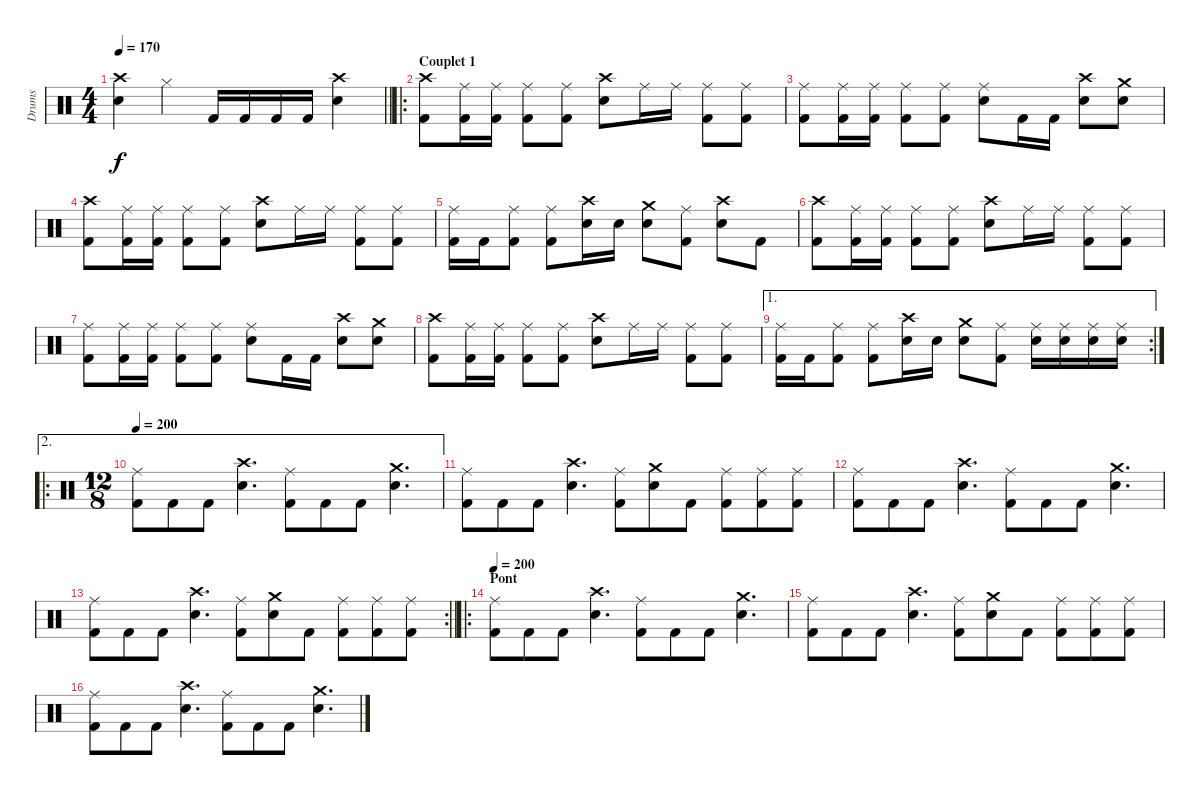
\track ("Drums" "Drums") {instrument percussion}
\staff {score}
\articulation defaults
\ts (4 4)
\tempo 170
\clef neutral
\barLineRight lightlight
\ks c
("Crash high (hit)" "Electric Snare (hit)").4{dy f} "Hi-Hat (closed)".4 "Kick (hit) 2".16 "Kick (hit) 2".16 "Kick (hit) 2".16 "Kick (hit) 2".16 ("Crash high (hit)" "Electric Snare (hit)").4 |
\ro
\section ("" "Couplet 1")
("Crash high (hit)" "Kick (hit) 2").8 ("Ride (middle)" "Kick (hit) 2").16 ("Ride (middle)" "Kick (hit) 2").16 ("Ride (middle)" "Kick (hit) 2").8 ("Ride (middle)" "Kick (hit) 2").8 ("Crash high (hit)" "Electric Snare (hit)").8 "Ride (middle)".16 "Ride (middle)".16 ("Ride (middle)" "Kick (hit) 2").8 ("Ride (middle)" "Kick (hit) 2").8 |
("Ride (middle)" "Kick (hit) 2").8 ("Ride (middle)" "Kick (hit) 2").16 ("Ride (middle)" "Kick (hit) 2").16 ("Ride (middle)" "Kick (hit) 2").8 ("Ride (middle)" "Kick (hit) 2").8 ("Ride (middle)" "Electric Snare (hit)").8 "Kick (hit) 2".16 "Kick (hit) 2".16 ("Crash high (hit)" "Electric Snare (hit)").8 ("Crash medium (hit)" "Electric Snare (hit)").8 |
("Crash high (hit)" "Kick (hit) 2").8 ("Ride (middle)" "Kick (hit) 2").16 ("Ride (middle)" "Kick (hit) 2").16 ("Ride (middle)" "Kick (hit) 2").8 ("Ride (middle)" "Kick (hit) 2").8 ("Crash high (hit)" "Electric Snare (hit)").8 "Ride (middle)".16 "Ride (middle)".16 ("Ride (middle)" "Kick (hit) 2").8 ("Ride (middle)" "Kick (hit) 2").8 |
("Ride (middle)" "Kick (hit) 2").16 "Kick (hit) 2".16 ("Ride (middle)" "Kick (hit) 2").8 ("Ride (middle)" "Kick (hit) 2").8 ("Crash high (hit)" "Electric Snare (hit)").16 "Electric Snare (hit)".16 ("Crash medium (hit)" "Electric Snare (hit)").8 ("Ride (middle)" "Kick (hit) 2").8 ("Crash high (hit)" "Electric Snare (hit)").8 "Kick (hit) 2".8 |
("Crash high (hit)" "Kick (hit) 2").8 ("Ride (middle)" "Kick (hit) 2").16 ("Ride (middle)" "Kick (hit) 2").16 ("Ride (middle)" "Kick (hit) 2").8 ("Ride (middle)" "Kick (hit) 2").8 ("Crash high (hit)" "Electric Snare (hit)").8 "Ride (middle)".16 "Ride (middle)".16 ("Ride (middle)" "Kick (hit) 2").8 ("Ride (middle)" "Kick (hit) 2").8 |
("Ride (middle)" "Kick (hit) 2").8 ("Ride (middle)" "Kick (hit) 2").16 ("Ride (middle)" "Kick (hit) 2").16 ("Ride (middle)" "Kick (hit) 2").8 ("Ride (middle)" "Kick (hit) 2").8 ("Ride (middle)" "Electric Snare (hit)").8 "Kick (hit) 2".16 "Kick (hit) 2".16 ("Crash high (hit)" "Electric Snare (hit)").8 ("Crash medium (hit)" "Electric Snare (hit)").8 |
("Crash high (hit)" "Kick (hit) 2").8 ("Ride (middle)" "Kick (hit) 2").16 ("Ride (middle)" "Kick (hit) 2").16 ("Ride (middle)" "Kick (hit) 2").8 ("Ride (middle)" "Kick (hit) 2").8 ("Crash high (hit)" "Electric Snare (hit)").8 "Ride (middle)".16 "Ride (middle)".16 ("Ride (middle)" "Kick (hit) 2").8 ("Ride (middle)" "Kick (hit) 2").8 |
\ae 1
\rc 2
("Ride (middle)" "Kick (hit) 2").16 "Kick (hit) 2".16 ("Ride (middle)" "Kick (hit) 2").8 ("Ride (middle)" "Kick (hit) 2").8 ("Crash high (hit)" "Electric Snare (hit)").16 "Electric Snare (hit)".16 ("Crash medium (hit)" "Electric Snare (hit)").8 ("Ride (middle)" "Kick (hit) 2").8 ("Ride (middle)" "Electric Snare (hit)").16 ("Ride (middle)" "Electric Snare (hit)").16 ("Ride (middle)" "Electric Snare (hit)").16 ("Ride (middle)" "Electric Snare (hit)").16 |
\ae 2
\ro
\ts (12 8)
\tempo 200
("Ride (middle)" "Kick (hit) 2").8 "Kick (hit) 2".8 "Kick (hit) 2".8 ("Crash high (hit)" "Electric Snare (hit)").4{d} ("Ride (middle)" "Kick (hit) 2").8 "Kick (hit) 2".8 "Kick (hit) 2".8 ("Crash medium (hit)" "Electric Snare (hit)").4{d} |
("Ride (middle)" "Kick (hit) 2").8 "Kick (hit) 2".8 "Kick (hit) 2".8 ("Crash high (hit)" "Electric Snare (hit)").4{d} ("Ride (middle)" "Kick (hit) 2").8 ("Crash medium (hit)" "Electric Snare (hit)").8 "Kick (hit) 2".8 ("Ride (middle)" "Kick (hit) 2").8 ("Ride (middle)" "Kick (hit) 2").8 ("Ride (middle)" "Kick (hit) 2").8 |
("Ride (middle)" "Kick (hit) 2").8 "Kick (hit) 2".8 "Kick (hit) 2".8 ("Crash high (hit)" "Electric Snare (hit)").4{d} ("Ride (middle)" "Kick (hit) 2").8 "Kick (hit) 2".8 "Kick (hit) 2".8 ("Crash medium (hit)" "Electric Snare (hit)").4{d} |
\rc 2
\barLineRight lightlight
("Ride (middle)" "Kick (hit) 2").8 "Kick (hit) 2".8 "Kick (hit) 2".8 ("Crash high (hit)" "Electric Snare (hit)").4{d} ("Ride (middle)" "Kick (hit) 2").8 ("Crash medium (hit)" "Electric Snare (hit)").8 "Kick (hit) 2".8 ("Ride (middle)" "Kick (hit) 2").8 ("Ride (middle)" "Kick (hit) 2").8 ("Ride (middle)" "Kick (hit) 2").8 |
\ro
\section ("" "Pont")
\tempo 200
("Ride (middle)" "Kick (hit) 2").8 "Kick (hit) 2".8 "Kick (hit) 2".8 ("Crash high (hit)" "Electric Snare (hit)").4{d} ("Ride (middle)" "Kick (hit) 2").8 "Kick (hit) 2".8 "Kick (hit) 2".8 ("Crash medium (hit)" "Electric Snare (hit)").4{d} |
("Ride (middle)" "Kick (hit) 2").8 "Kick (hit) 2".8 "Kick (hit) 2".8 ("Crash high (hit)" "Electric Snare (hit)").4{d} ("Ride (middle)" "Kick (hit) 2").8 ("Crash medium (hit)" "Electric Snare (hit)").8 "Kick (hit) 2".8 ("Ride (middle)" "Kick (hit) 2").8 ("Ride (middle)" "Kick (hit) 2").8 ("Ride (middle)" "Kick (hit) 2").8 |
("Ride (middle)" "Kick (hit) 2").8 "Kick (hit) 2".8 "Kick (hit) 2".8 ("Crash high (hit)" "Electric Snare (hit)").4{d} ("Ride (middle)" "Kick (hit) 2").8 "Kick (hit) 2".8 "Kick (hit) 2".8 ("Crash medium (hit)" "Electric Snare (hit)").4{d}
